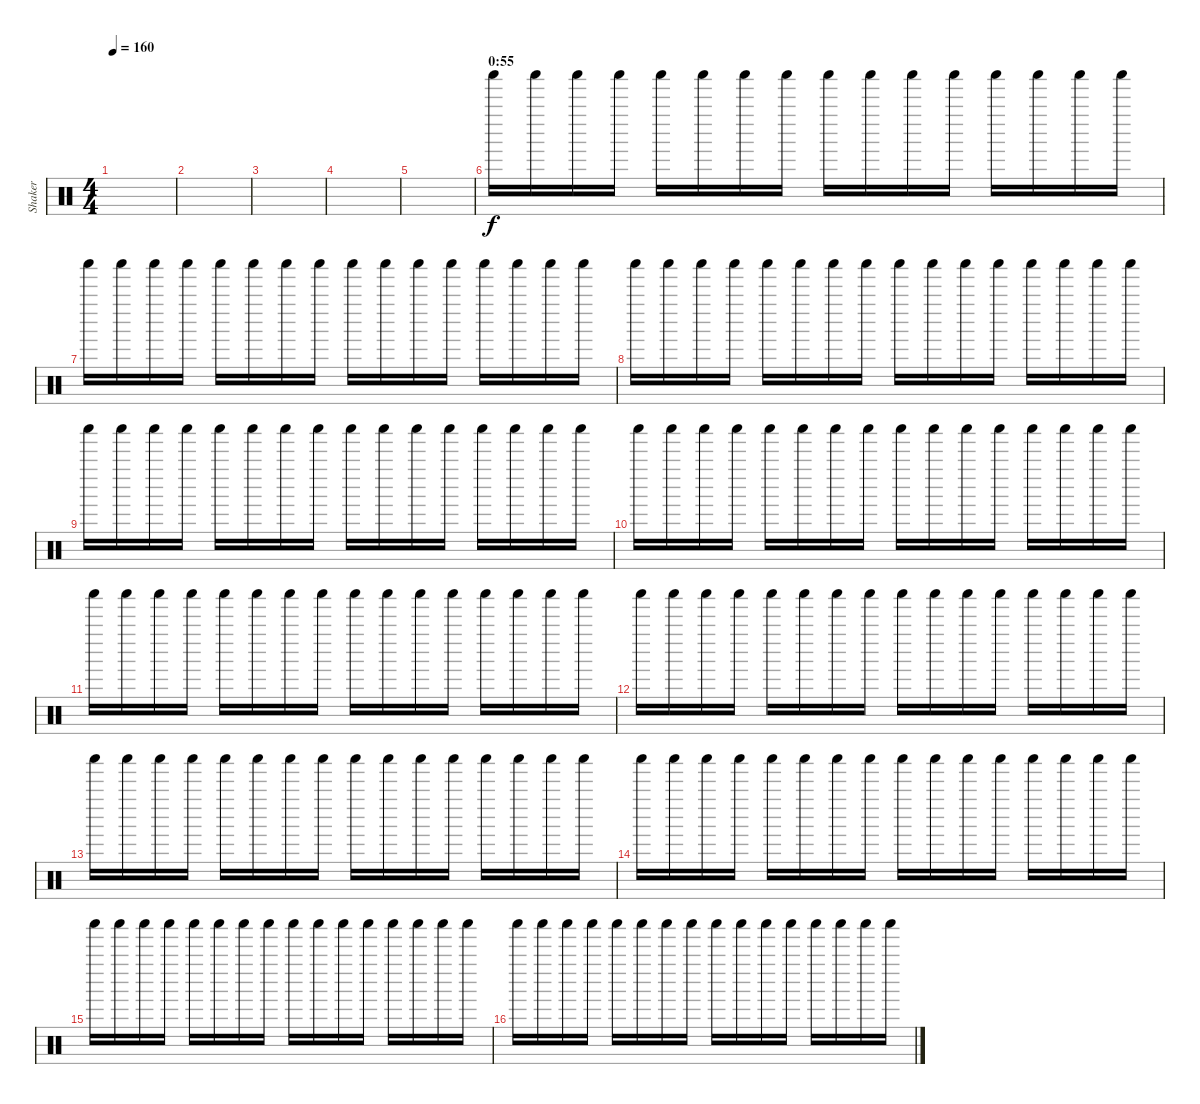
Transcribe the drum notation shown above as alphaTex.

\track ("Shaker" "Shaker") {instrument percussion}
\staff {score}
\articulation defaults
\ts (4 4)
\tempo 160
\clef neutral
\ks c
|
|
|
|
|
\section ("" "0:55")
"Shaker (hit)".16 "Shaker (hit)".16 "Shaker (hit)".16 "Shaker (hit)".16 "Shaker (hit)".16 "Shaker (hit)".16 "Shaker (hit)".16 "Shaker (hit)".16 "Shaker (hit)".16 "Shaker (hit)".16 "Shaker (hit)".16 "Shaker (hit)".16 "Shaker (hit)".16 "Shaker (hit)".16 "Shaker (hit)".16 "Shaker (hit)".16 |
"Shaker (hit)".16 "Shaker (hit)".16 "Shaker (hit)".16 "Shaker (hit)".16 "Shaker (hit)".16 "Shaker (hit)".16 "Shaker (hit)".16 "Shaker (hit)".16 "Shaker (hit)".16 "Shaker (hit)".16 "Shaker (hit)".16 "Shaker (hit)".16 "Shaker (hit)".16 "Shaker (hit)".16 "Shaker (hit)".16 "Shaker (hit)".16 |
"Shaker (hit)".16 "Shaker (hit)".16 "Shaker (hit)".16 "Shaker (hit)".16 "Shaker (hit)".16 "Shaker (hit)".16 "Shaker (hit)".16 "Shaker (hit)".16 "Shaker (hit)".16 "Shaker (hit)".16 "Shaker (hit)".16 "Shaker (hit)".16 "Shaker (hit)".16 "Shaker (hit)".16 "Shaker (hit)".16 "Shaker (hit)".16 |
"Shaker (hit)".16 "Shaker (hit)".16 "Shaker (hit)".16 "Shaker (hit)".16 "Shaker (hit)".16 "Shaker (hit)".16 "Shaker (hit)".16 "Shaker (hit)".16 "Shaker (hit)".16 "Shaker (hit)".16 "Shaker (hit)".16 "Shaker (hit)".16 "Shaker (hit)".16 "Shaker (hit)".16 "Shaker (hit)".16 "Shaker (hit)".16 |
"Shaker (hit)".16 "Shaker (hit)".16 "Shaker (hit)".16 "Shaker (hit)".16 "Shaker (hit)".16 "Shaker (hit)".16 "Shaker (hit)".16 "Shaker (hit)".16 "Shaker (hit)".16 "Shaker (hit)".16 "Shaker (hit)".16 "Shaker (hit)".16 "Shaker (hit)".16 "Shaker (hit)".16 "Shaker (hit)".16 "Shaker (hit)".16 |
"Shaker (hit)".16 "Shaker (hit)".16 "Shaker (hit)".16 "Shaker (hit)".16 "Shaker (hit)".16 "Shaker (hit)".16 "Shaker (hit)".16 "Shaker (hit)".16 "Shaker (hit)".16 "Shaker (hit)".16 "Shaker (hit)".16 "Shaker (hit)".16 "Shaker (hit)".16 "Shaker (hit)".16 "Shaker (hit)".16 "Shaker (hit)".16 |
"Shaker (hit)".16 "Shaker (hit)".16 "Shaker (hit)".16 "Shaker (hit)".16 "Shaker (hit)".16 "Shaker (hit)".16 "Shaker (hit)".16 "Shaker (hit)".16 "Shaker (hit)".16 "Shaker (hit)".16 "Shaker (hit)".16 "Shaker (hit)".16 "Shaker (hit)".16 "Shaker (hit)".16 "Shaker (hit)".16 "Shaker (hit)".16 |
"Shaker (hit)".16 "Shaker (hit)".16 "Shaker (hit)".16 "Shaker (hit)".16 "Shaker (hit)".16 "Shaker (hit)".16 "Shaker (hit)".16 "Shaker (hit)".16 "Shaker (hit)".16 "Shaker (hit)".16 "Shaker (hit)".16 "Shaker (hit)".16 "Shaker (hit)".16 "Shaker (hit)".16 "Shaker (hit)".16 "Shaker (hit)".16 |
"Shaker (hit)".16 "Shaker (hit)".16 "Shaker (hit)".16 "Shaker (hit)".16 "Shaker (hit)".16 "Shaker (hit)".16 "Shaker (hit)".16 "Shaker (hit)".16 "Shaker (hit)".16 "Shaker (hit)".16 "Shaker (hit)".16 "Shaker (hit)".16 "Shaker (hit)".16 "Shaker (hit)".16 "Shaker (hit)".16 "Shaker (hit)".16 |
"Shaker (hit)".16 "Shaker (hit)".16 "Shaker (hit)".16 "Shaker (hit)".16 "Shaker (hit)".16 "Shaker (hit)".16 "Shaker (hit)".16 "Shaker (hit)".16 "Shaker (hit)".16 "Shaker (hit)".16 "Shaker (hit)".16 "Shaker (hit)".16 "Shaker (hit)".16 "Shaker (hit)".16 "Shaker (hit)".16 "Shaker (hit)".16 |
"Shaker (hit)".16 "Shaker (hit)".16 "Shaker (hit)".16 "Shaker (hit)".16 "Shaker (hit)".16 "Shaker (hit)".16 "Shaker (hit)".16 "Shaker (hit)".16 "Shaker (hit)".16 "Shaker (hit)".16 "Shaker (hit)".16 "Shaker (hit)".16 "Shaker (hit)".16 "Shaker (hit)".16 "Shaker (hit)".16 "Shaker (hit)".16
